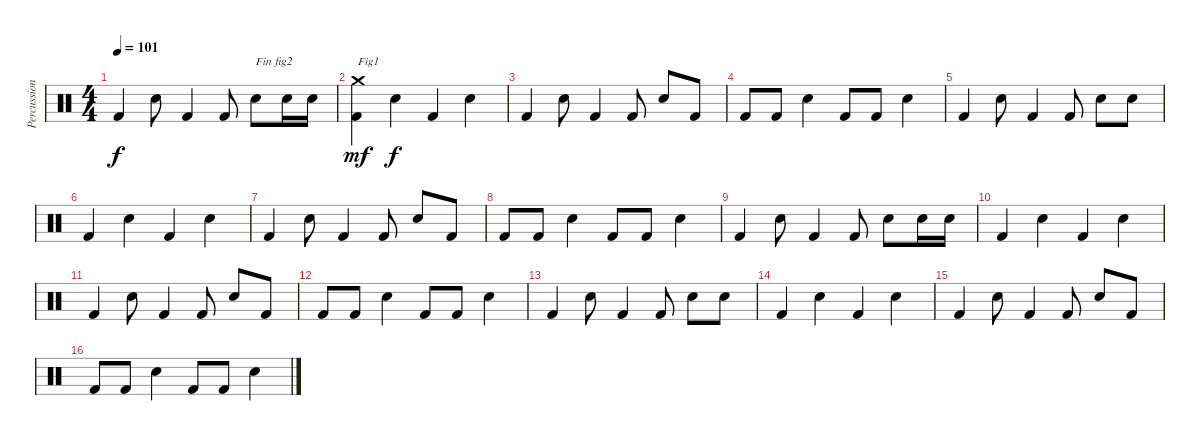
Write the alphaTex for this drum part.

\track ("Percussions" "Percussion") {instrument percussion}
\staff {score}
\articulation defaults
\ts (4 4)
\tempo 101
\clef neutral
\ks c "Kick (hit) 2".4{dy f} "Snare (hit) 2".8 "Kick (hit) 2".4 "Kick (hit) 2".8 "Snare (hit) 2".8{txt "Fin fig2"} "Snare (hit) 2".16 "Snare (hit) 2".16
|
("Kick (hit) 2" "Crash medium (hit)").4{txt "Fig1" dy mf} "Snare (hit) 2".4{dy f} "Kick (hit) 2".4 "Snare (hit) 2".4 |
"Kick (hit) 2".4 "Snare (hit) 2".8 "Kick (hit) 2".4 "Kick (hit) 2".8 "Snare (hit) 2".8 "Kick (hit) 2".8 |
"Kick (hit) 2".8 "Kick (hit) 2".8 "Snare (hit) 2".4 "Kick (hit) 2".8 "Kick (hit) 2".8 "Snare (hit) 2".4 |
"Kick (hit) 2".4 "Snare (hit) 2".8 "Kick (hit) 2".4 "Kick (hit) 2".8 "Snare (hit) 2".8 "Snare (hit) 2".8 |
"Kick (hit) 2".4{volume 10} "Snare (hit) 2".4 "Kick (hit) 2".4 "Snare (hit) 2".4 |
"Kick (hit) 2".4 "Snare (hit) 2".8 "Kick (hit) 2".4 "Kick (hit) 2".8 "Snare (hit) 2".8 "Kick (hit) 2".8 |
"Kick (hit) 2".8 "Kick (hit) 2".8 "Snare (hit) 2".4 "Kick (hit) 2".8 "Kick (hit) 2".8 "Snare (hit) 2".4 |
"Kick (hit) 2".4 "Snare (hit) 2".8 "Kick (hit) 2".4 "Kick (hit) 2".8 "Snare (hit) 2".8 "Snare (hit) 2".16 "Snare (hit) 2".16 |
"Kick (hit) 2".4{volume 7} "Snare (hit) 2".4 "Kick (hit) 2".4 "Snare (hit) 2".4 |
"Kick (hit) 2".4 "Snare (hit) 2".8 "Kick (hit) 2".4 "Kick (hit) 2".8 "Snare (hit) 2".8 "Kick (hit) 2".8 |
"Kick (hit) 2".8 "Kick (hit) 2".8 "Snare (hit) 2".4 "Kick (hit) 2".8 "Kick (hit) 2".8 "Snare (hit) 2".4 |
"Kick (hit) 2".4 "Snare (hit) 2".8 "Kick (hit) 2".4 "Kick (hit) 2".8 "Snare (hit) 2".8 "Snare (hit) 2".8 |
"Kick (hit) 2".4{volume 5} "Snare (hit) 2".4 "Kick (hit) 2".4 "Snare (hit) 2".4 |
"Kick (hit) 2".4 "Snare (hit) 2".8 "Kick (hit) 2".4 "Kick (hit) 2".8 "Snare (hit) 2".8 "Kick (hit) 2".8 |
"Kick (hit) 2".8 "Kick (hit) 2".8 "Snare (hit) 2".4 "Kick (hit) 2".8 "Kick (hit) 2".8 "Snare (hit) 2".4
